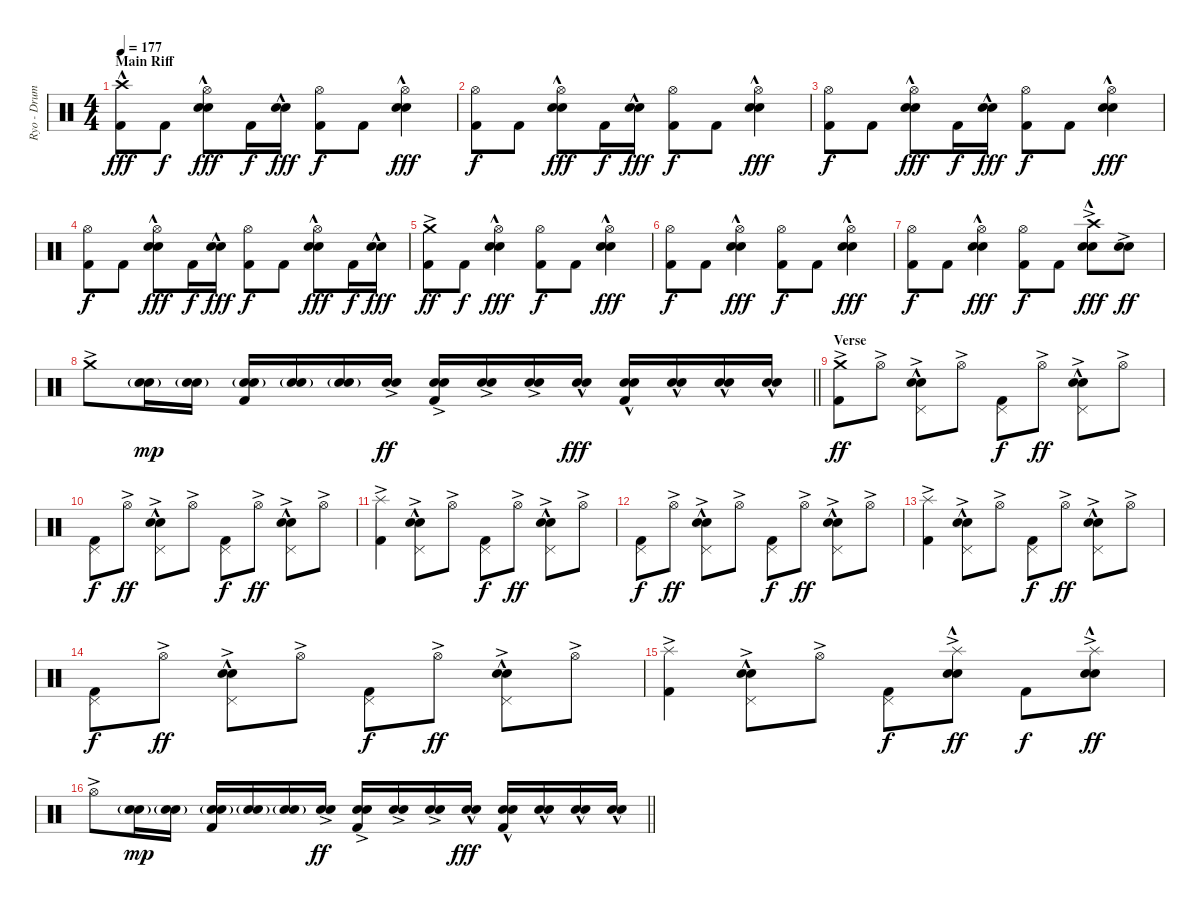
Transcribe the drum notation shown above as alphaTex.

\track ("Ryo - Drums" "Ryo - Drum") {instrument percussion}
\staff {score}
\articulation defaults
\ts (4 4)
\section ("" "Main Riff")
\tempo 177
\clef neutral
\ks c
("Crash high (hit)"{hac} "Kick (hit) 2").8{dy fff} "Kick (hit) 2".8{dy f} ("Hi-Hat (open)" "Electric Snare (hit)"{hac} "Snare (hit) 2"{hac}).8{dy fff} "Kick (hit) 2".16{dy f} ("Electric Snare (hit)"{hac} "Snare (hit) 2"{hac}).16{dy fff} ("Hi-Hat (open)" "Kick (hit) 2").8{dy f} "Kick (hit) 2".8 ("Hi-Hat (open)" "Electric Snare (hit)"{hac} "Snare (hit) 2"{hac}).4{dy fff} |
("Hi-Hat (open)" "Kick (hit) 2").8{dy f} "Kick (hit) 2".8 ("Hi-Hat (open)" "Electric Snare (hit)"{hac} "Snare (hit) 2"{hac}).8{dy fff} "Kick (hit) 2".16{dy f} ("Electric Snare (hit)"{hac} "Snare (hit) 2"{hac}).16{dy fff} ("Hi-Hat (open)" "Kick (hit) 2").8{dy f} "Kick (hit) 2".8 ("Hi-Hat (open)" "Electric Snare (hit)"{hac} "Snare (hit) 2"{hac}).4{dy fff} |
("Hi-Hat (open)" "Kick (hit) 2").8{dy f} "Kick (hit) 2".8 ("Hi-Hat (open)" "Electric Snare (hit)"{hac} "Snare (hit) 2"{hac}).8{dy fff} "Kick (hit) 2".16{dy f} ("Electric Snare (hit)"{hac} "Snare (hit) 2"{hac}).16{dy fff} ("Hi-Hat (open)" "Kick (hit) 2").8{dy f} "Kick (hit) 2".8 ("Hi-Hat (open)" "Electric Snare (hit)"{hac} "Snare (hit) 2"{hac}).4{dy fff} |
("Hi-Hat (open)" "Kick (hit) 2").8{dy f} "Kick (hit) 2".8 ("Hi-Hat (open)" "Electric Snare (hit)"{hac} "Snare (hit) 2"{hac}).8{dy fff} "Kick (hit) 2".16{dy f} ("Electric Snare (hit)"{hac} "Snare (hit) 2"{hac}).16{dy fff} ("Hi-Hat (open)" "Kick (hit) 2").8{dy f} "Kick (hit) 2".8 ("Hi-Hat (open)" "Electric Snare (hit)"{hac} "Snare (hit) 2"{hac}).8{dy fff} "Kick (hit) 2".16{dy f} ("Electric Snare (hit)"{hac} "Snare (hit) 2"{hac}).16{dy fff} |
("Crash medium (hit)"{ac} "Kick (hit) 2").8{dy ff} "Kick (hit) 2".8{dy f} ("Hi-Hat (open)" "Electric Snare (hit)"{hac} "Snare (hit) 2"{hac}).4{dy fff} ("Hi-Hat (open)" "Kick (hit) 2").8{dy f} "Kick (hit) 2".8 ("Hi-Hat (open)" "Electric Snare (hit)"{hac} "Snare (hit) 2"{hac}).4{dy fff} |
("Hi-Hat (open)" "Kick (hit) 2").8{dy f} "Kick (hit) 2".8 ("Hi-Hat (open)" "Electric Snare (hit)"{hac} "Snare (hit) 2"{hac}).4{dy fff} ("Hi-Hat (open)" "Kick (hit) 2").8{dy f} "Kick (hit) 2".8 ("Hi-Hat (open)" "Electric Snare (hit)"{hac} "Snare (hit) 2"{hac}).4{dy fff} |
("Hi-Hat (open)" "Kick (hit) 2").8{dy f} "Kick (hit) 2".8 ("Hi-Hat (open)" "Electric Snare (hit)"{hac} "Snare (hit) 2"{hac}).4{dy fff} ("Hi-Hat (open)" "Kick (hit) 2").8{dy f} "Kick (hit) 2".8 ("Crash high (hit)"{ac} "Electric Snare (hit)"{hac} "Snare (hit) 2"{hac}).8{dy fff} ("Electric Snare (hit)"{ac} "Snare (hit) 2"{ac}).8{dy ff} |
\barLineRight lightlight "Crash medium (hit)"{ac}.8
("Electric Snare (hit)"{g} "Snare (hit) 2"{g}).16{dy mp} ("Electric Snare (hit)"{g} "Snare (hit) 2"{g}).16 ("Electric Snare (hit)"{g} "Snare (hit) 2"{g} "Kick (hit) 2").16 ("Electric Snare (hit)"{g} "Snare (hit) 2"{g}).16 ("Electric Snare (hit)"{g} "Snare (hit) 2"{g}).16 ("Electric Snare (hit)"{ac} "Snare (hit) 2"{ac}).16{dy ff} ("Electric Snare (hit)"{ac} "Snare (hit) 2"{ac} "Kick (hit) 2").16 ("Electric Snare (hit)"{ac} "Snare (hit) 2"{ac}).16 ("Electric Snare (hit)"{ac} "Snare (hit) 2"{ac}).16 ("Electric Snare (hit)"{hac} "Snare (hit) 2"{hac}).16{dy fff} ("Electric Snare (hit)"{hac} "Snare (hit) 2"{hac} "Kick (hit) 2").16 ("Electric Snare (hit)"{hac} "Snare (hit) 2"{hac}).16 ("Electric Snare (hit)"{hac} "Snare (hit) 2"{hac}).16 ("Electric Snare (hit)"{hac} "Snare (hit) 2"{hac}).16 |
\section ("" "Verse")
("Crash medium (hit)"{ac} "Kick (hit) 2").8{dy ff} "Hi-Hat (open)"{ac}.8 ("Pedal Hi-Hat (hit)" "Electric Snare (hit)"{hac} "Snare (hit) 2"{ac}).8 "Hi-Hat (open)"{ac}.8 ("Pedal Hi-Hat (hit)" "Kick (hit) 2").8{dy f} "Hi-Hat (open)"{ac}.8{dy ff} ("Pedal Hi-Hat (hit)" "Electric Snare (hit)"{hac} "Snare (hit) 2"{ac}).8 "Hi-Hat (open)"{ac}.8 |
("Pedal Hi-Hat (hit)" "Kick (hit) 2").8{dy f} "Hi-Hat (open)"{ac}.8{dy ff} ("Pedal Hi-Hat (hit)" "Electric Snare (hit)"{hac} "Snare (hit) 2"{ac}).8 "Hi-Hat (open)"{ac}.8 ("Pedal Hi-Hat (hit)" "Kick (hit) 2").8{dy f} "Hi-Hat (open)"{ac}.8{dy ff} ("Pedal Hi-Hat (hit)" "Electric Snare (hit)"{hac} "Snare (hit) 2"{ac}).8 "Hi-Hat (open)"{ac}.8 |
("Splash (hit)"{ac} "Kick (hit) 2").4 ("Pedal Hi-Hat (hit)" "Electric Snare (hit)"{hac} "Snare (hit) 2"{ac}).8 "Hi-Hat (open)"{ac}.8 ("Pedal Hi-Hat (hit)" "Kick (hit) 2").8{dy f} "Hi-Hat (open)"{ac}.8{dy ff} ("Pedal Hi-Hat (hit)" "Electric Snare (hit)"{hac} "Snare (hit) 2"{ac}).8 "Hi-Hat (open)"{ac}.8 |
("Pedal Hi-Hat (hit)" "Kick (hit) 2").8{dy f} "Hi-Hat (open)"{ac}.8{dy ff} ("Pedal Hi-Hat (hit)" "Electric Snare (hit)"{hac} "Snare (hit) 2"{ac}).8 "Hi-Hat (open)"{ac}.8 ("Pedal Hi-Hat (hit)" "Kick (hit) 2").8{dy f} "Hi-Hat (open)"{ac}.8{dy ff} ("Pedal Hi-Hat (hit)" "Electric Snare (hit)"{hac} "Snare (hit) 2"{ac}).8 "Hi-Hat (open)"{ac}.8 |
("Splash (hit)"{ac} "Kick (hit) 2").4 ("Pedal Hi-Hat (hit)" "Electric Snare (hit)"{hac} "Snare (hit) 2"{ac}).8 "Hi-Hat (open)"{ac}.8 ("Pedal Hi-Hat (hit)" "Kick (hit) 2").8{dy f} "Hi-Hat (open)"{ac}.8{dy ff} ("Pedal Hi-Hat (hit)" "Electric Snare (hit)"{hac} "Snare (hit) 2"{ac}).8 "Hi-Hat (open)"{ac}.8 |
("Pedal Hi-Hat (hit)" "Kick (hit) 2").8{dy f} "Hi-Hat (open)"{ac}.8{dy ff} ("Pedal Hi-Hat (hit)" "Electric Snare (hit)"{hac} "Snare (hit) 2"{ac}).8 "Hi-Hat (open)"{ac}.8 ("Pedal Hi-Hat (hit)" "Kick (hit) 2").8{dy f} "Hi-Hat (open)"{ac}.8{dy ff} ("Pedal Hi-Hat (hit)" "Electric Snare (hit)"{hac} "Snare (hit) 2"{ac}).8 "Hi-Hat (open)"{ac}.8 |
("Splash (hit)"{ac} "Kick (hit) 2").4 ("Pedal Hi-Hat (hit)" "Electric Snare (hit)"{hac} "Snare (hit) 2"{ac}).8 "Hi-Hat (open)"{ac}.8 ("Pedal Hi-Hat (hit)" "Kick (hit) 2").8{dy f} ("Splash (hit)"{ac} "Electric Snare (hit)"{hac} "Snare (hit) 2"{ac}).8{dy ff} "Kick (hit) 2".8{dy f} ("Splash (hit)"{ac} "Electric Snare (hit)"{hac} "Snare (hit) 2"{ac}).8{dy ff} |
\barLineRight lightlight "Hi-Hat (open)"{ac}.8
("Electric Snare (hit)"{g} "Snare (hit) 2"{g}).16{dy mp} ("Electric Snare (hit)"{g} "Snare (hit) 2"{g}).16 ("Electric Snare (hit)"{g} "Snare (hit) 2"{g} "Kick (hit) 2").16 ("Electric Snare (hit)"{g} "Snare (hit) 2"{g}).16 ("Electric Snare (hit)"{g} "Snare (hit) 2"{g}).16 ("Electric Snare (hit)"{ac} "Snare (hit) 2"{ac}).16{dy ff} ("Electric Snare (hit)"{ac} "Snare (hit) 2"{ac} "Kick (hit) 2").16 ("Electric Snare (hit)"{ac} "Snare (hit) 2"{ac}).16 ("Electric Snare (hit)"{ac} "Snare (hit) 2"{ac}).16 ("Electric Snare (hit)"{hac} "Snare (hit) 2"{hac}).16{dy fff} ("Electric Snare (hit)"{hac} "Snare (hit) 2"{hac} "Kick (hit) 2").16 ("Electric Snare (hit)"{hac} "Snare (hit) 2"{hac}).16 ("Electric Snare (hit)"{hac} "Snare (hit) 2"{hac}).16 ("Electric Snare (hit)"{hac} "Snare (hit) 2"{hac}).16
